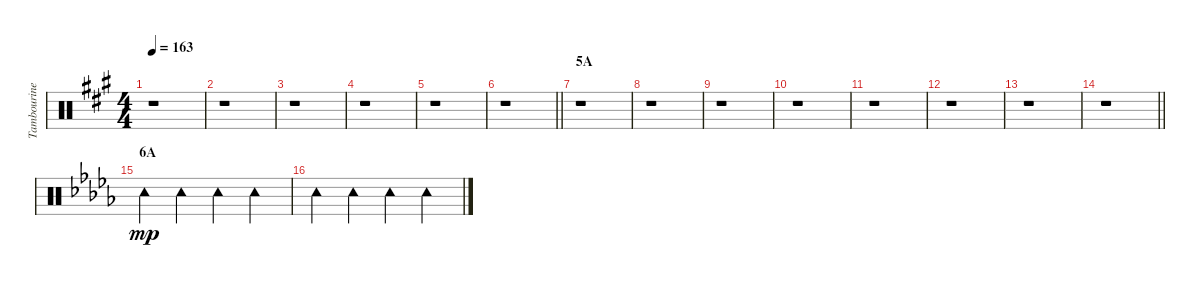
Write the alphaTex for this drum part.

\track ("Tambourine" "Tambourine") {instrument percussion}
\staff {score}
\articulation defaults
\ts (4 4)
\tempo 163
\clef neutral
\ks a
r.1{dy mp} |
r.1 |
r.1 |
r.1 |
r.1 |
\barLineRight lightlight
r.1 |
\section ("" "5A")
r.1 |
r.1 |
r.1 |
r.1 |
r.1 |
r.1 |
r.1 |
\barLineRight lightlight
r.1 |
\section ("" "6A")
\ks db "Tambourine (hit)".4 "Tambourine (hit)".4 "Tambourine (hit)".4 "Tambourine (hit)".4
|
"Tambourine (hit)".4 "Tambourine (hit)".4 "Tambourine (hit)".4 "Tambourine (hit)".4
